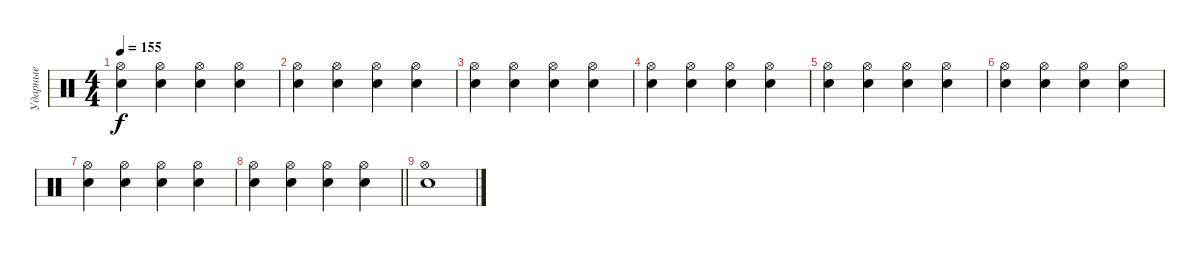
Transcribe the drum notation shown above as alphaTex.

\track ("Ударные" "Ударные") {instrument percussion}
\staff {score}
\articulation defaults
\ts (4 4)
\tempo 155
\clef neutral
\ks c
("Hi-Hat (open)" "Electric Snare (hit)").4{dy f} ("Hi-Hat (open)" "Electric Snare (hit)").4 ("Hi-Hat (open)" "Electric Snare (hit)").4 ("Hi-Hat (open)" "Electric Snare (hit)").4 |
("Hi-Hat (open)" "Electric Snare (hit)").4 ("Hi-Hat (open)" "Electric Snare (hit)").4 ("Hi-Hat (open)" "Electric Snare (hit)").4 ("Hi-Hat (open)" "Electric Snare (hit)").4 |
("Hi-Hat (open)" "Electric Snare (hit)").4 ("Hi-Hat (open)" "Electric Snare (hit)").4 ("Hi-Hat (open)" "Electric Snare (hit)").4 ("Hi-Hat (open)" "Electric Snare (hit)").4 |
("Hi-Hat (open)" "Electric Snare (hit)").4 ("Hi-Hat (open)" "Electric Snare (hit)").4 ("Hi-Hat (open)" "Electric Snare (hit)").4 ("Hi-Hat (open)" "Electric Snare (hit)").4 |
("Hi-Hat (open)" "Electric Snare (hit)").4 ("Hi-Hat (open)" "Electric Snare (hit)").4 ("Hi-Hat (open)" "Electric Snare (hit)").4 ("Hi-Hat (open)" "Electric Snare (hit)").4 |
("Hi-Hat (open)" "Electric Snare (hit)").4 ("Hi-Hat (open)" "Electric Snare (hit)").4 ("Hi-Hat (open)" "Electric Snare (hit)").4 ("Hi-Hat (open)" "Electric Snare (hit)").4 |
("Hi-Hat (open)" "Electric Snare (hit)").4 ("Hi-Hat (open)" "Electric Snare (hit)").4 ("Hi-Hat (open)" "Electric Snare (hit)").4 ("Hi-Hat (open)" "Electric Snare (hit)").4 |
\barLineRight lightlight
("Hi-Hat (open)" "Electric Snare (hit)").4 ("Hi-Hat (open)" "Electric Snare (hit)").4 ("Hi-Hat (open)" "Electric Snare (hit)").4 ("Hi-Hat (open)" "Electric Snare (hit)").4 |
("Hi-Hat (open)" "Electric Snare (hit)").1
